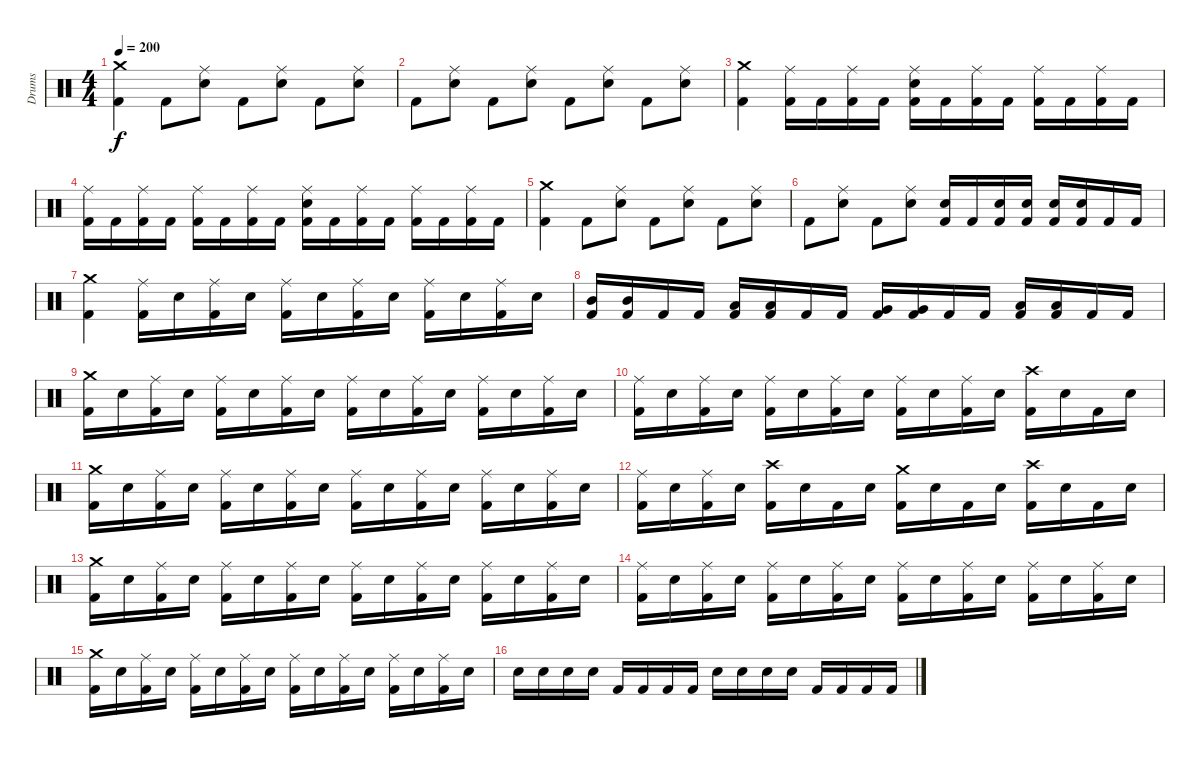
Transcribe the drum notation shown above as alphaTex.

\track ("Drums" "Drums") {instrument percussion}
\staff {score}
\articulation defaults
\ts (4 4)
\tempo 200
\clef neutral
\ks c
("Crash medium (hit)" "Kick (hit) 2").4{dy f} "Kick (hit) 2".8 ("Ride (middle)" "Electric Snare (hit)").8 "Kick (hit) 2".8 ("Ride (middle)" "Electric Snare (hit)").8 "Kick (hit) 2".8 ("Ride (middle)" "Electric Snare (hit)").8 |
"Kick (hit) 2".8 ("Ride (middle)" "Electric Snare (hit)").8 "Kick (hit) 2".8 ("Ride (middle)" "Electric Snare (hit)").8 "Kick (hit) 2".8 ("Ride (middle)" "Electric Snare (hit)").8 "Kick (hit) 2".8 ("Ride (middle)" "Electric Snare (hit)").8 |
("Crash medium (hit)" "Kick (hit) 2").4 ("Ride (middle)" "Kick (hit) 2").16 "Kick (hit) 2".16 ("Ride (middle)" "Kick (hit) 2").16 "Kick (hit) 2".16 ("Ride (middle)" "Electric Snare (hit)" "Kick (hit) 2").16 "Kick (hit) 2".16 ("Ride (middle)" "Kick (hit) 2").16 "Kick (hit) 2".16 ("Ride (middle)" "Kick (hit) 2").16 "Kick (hit) 2".16 ("Ride (middle)" "Kick (hit) 2").16 "Kick (hit) 2".16 |
("Ride (middle)" "Kick (hit) 2").16 "Kick (hit) 2".16 ("Ride (middle)" "Kick (hit) 2").16 "Kick (hit) 2".16 ("Ride (middle)" "Kick (hit) 2").16 "Kick (hit) 2".16 ("Ride (middle)" "Kick (hit) 2").16 "Kick (hit) 2".16 ("Ride (middle)" "Electric Snare (hit)" "Kick (hit) 2").16 "Kick (hit) 2".16 ("Ride (middle)" "Kick (hit) 2").16 "Kick (hit) 2".16 ("Ride (middle)" "Kick (hit) 2").16 "Kick (hit) 2".16 ("Ride (middle)" "Kick (hit) 2").16 "Kick (hit) 2".16 |
("Crash medium (hit)" "Kick (hit) 2").4 "Kick (hit) 2".8 ("Ride (middle)" "Electric Snare (hit)").8 "Kick (hit) 2".8 ("Ride (middle)" "Electric Snare (hit)").8 "Kick (hit) 2".8 ("Ride (middle)" "Electric Snare (hit)").8 |
"Kick (hit) 2".8 ("Ride (middle)" "Electric Snare (hit)").8 "Kick (hit) 2".8 ("Ride (middle)" "Electric Snare (hit)").8 ("Electric Snare (hit)" "Kick (hit) 2").16 "Kick (hit) 2".16 ("Electric Snare (hit)" "Kick (hit) 2").16 ("Electric Snare (hit)" "Kick (hit) 2").16 ("Electric Snare (hit)" "Kick (hit) 2").16 ("Electric Snare (hit)" "Kick (hit) 2").16 "Kick (hit) 2".16 "Kick (hit) 2".16 |
("Crash medium (hit)" "Kick (hit) 2").4 ("Ride (middle)" "Kick (hit) 2").16 "Electric Snare (hit)".16 ("Ride (middle)" "Kick (hit) 2").16 "Electric Snare (hit)".16 ("Ride (middle)" "Kick (hit) 2").16 "Electric Snare (hit)".16 ("Ride (middle)" "Kick (hit) 2").16 "Electric Snare (hit)".16 ("Ride (middle)" "Kick (hit) 2").16 "Electric Snare (hit)".16 ("Ride (middle)" "Kick (hit) 2").16 "Electric Snare (hit)".16 |
("Mid Tom (hit)" "Kick (hit) 2").16 ("Mid Tom (hit)" "Kick (hit) 2").16 "Kick (hit) 2".16 "Kick (hit) 2".16 ("Low Tom (hit)" "Kick (hit) 2").16 ("Low Tom (hit)" "Kick (hit) 2").16 "Kick (hit) 2".16 "Kick (hit) 2".16 ("Very Low Tom (hit)" "Kick (hit) 2").16 ("Very Low Tom (hit)" "Kick (hit) 2").16 "Kick (hit) 2".16 "Kick (hit) 2".16 ("Low Floor Tom (hit)" "Kick (hit) 2").16 ("Low Floor Tom (hit)" "Kick (hit) 2").16 "Kick (hit) 2".16 "Kick (hit) 2".16 |
\section ("" "")
("Crash medium (hit)" "Kick (hit) 2").16 "Electric Snare (hit)".16 ("Ride (middle)" "Kick (hit) 2").16 "Electric Snare (hit)".16 ("Ride (middle)" "Kick (hit) 2").16 "Electric Snare (hit)".16 ("Ride (middle)" "Kick (hit) 2").16 "Electric Snare (hit)".16 ("Ride (middle)" "Kick (hit) 2").16 "Electric Snare (hit)".16 ("Ride (middle)" "Kick (hit) 2").16 "Electric Snare (hit)".16 ("Ride (middle)" "Kick (hit) 2").16 "Electric Snare (hit)".16 ("Ride (middle)" "Kick (hit) 2").16 "Electric Snare (hit)".16 |
("Ride (middle)" "Kick (hit) 2").16 "Electric Snare (hit)".16 ("Ride (middle)" "Kick (hit) 2").16 "Electric Snare (hit)".16 ("Ride (middle)" "Kick (hit) 2").16 "Electric Snare (hit)".16 ("Ride (middle)" "Kick (hit) 2").16 "Electric Snare (hit)".16 ("Ride (middle)" "Kick (hit) 2").16 "Electric Snare (hit)".16 ("Ride (middle)" "Kick (hit) 2").16 "Electric Snare (hit)".16 ("Crash high (hit)" "Kick (hit) 2").16 "Electric Snare (hit)".16 "Kick (hit) 2".16 "Electric Snare (hit)".16 |
("Crash medium (hit)" "Kick (hit) 2").16 "Electric Snare (hit)".16 ("Ride (middle)" "Kick (hit) 2").16 "Electric Snare (hit)".16 ("Ride (middle)" "Kick (hit) 2").16 "Electric Snare (hit)".16 ("Ride (middle)" "Kick (hit) 2").16 "Electric Snare (hit)".16 ("Ride (middle)" "Kick (hit) 2").16 "Electric Snare (hit)".16 ("Ride (middle)" "Kick (hit) 2").16 "Electric Snare (hit)".16 ("Ride (middle)" "Kick (hit) 2").16 "Electric Snare (hit)".16 ("Ride (middle)" "Kick (hit) 2").16 "Electric Snare (hit)".16 |
("Ride (middle)" "Kick (hit) 2").16 "Electric Snare (hit)".16 ("Ride (middle)" "Kick (hit) 2").16 "Electric Snare (hit)".16 ("Crash high (hit)" "Kick (hit) 2").16 "Electric Snare (hit)".16 "Kick (hit) 2".16 "Electric Snare (hit)".16 ("Crash medium (hit)" "Kick (hit) 2").16 "Electric Snare (hit)".16 "Kick (hit) 2".16 "Electric Snare (hit)".16 ("Crash high (hit)" "Kick (hit) 2").16 "Electric Snare (hit)".16 "Kick (hit) 2".16 "Electric Snare (hit)".16 |
("Crash medium (hit)" "Kick (hit) 2").16 "Electric Snare (hit)".16 ("Ride (middle)" "Kick (hit) 2").16 "Electric Snare (hit)".16 ("Ride (middle)" "Kick (hit) 2").16 "Electric Snare (hit)".16 ("Ride (middle)" "Kick (hit) 2").16 "Electric Snare (hit)".16 ("Ride (middle)" "Kick (hit) 2").16 "Electric Snare (hit)".16 ("Ride (middle)" "Kick (hit) 2").16 "Electric Snare (hit)".16 ("Ride (middle)" "Kick (hit) 2").16 "Electric Snare (hit)".16 ("Ride (middle)" "Kick (hit) 2").16 "Electric Snare (hit)".16 |
("Ride (middle)" "Kick (hit) 2").16 "Electric Snare (hit)".16 ("Ride (middle)" "Kick (hit) 2").16 "Electric Snare (hit)".16 ("Ride (middle)" "Kick (hit) 2").16 "Electric Snare (hit)".16 ("Ride (middle)" "Kick (hit) 2").16 "Electric Snare (hit)".16 ("Ride (middle)" "Kick (hit) 2").16 "Electric Snare (hit)".16 ("Ride (middle)" "Kick (hit) 2").16 "Electric Snare (hit)".16 ("Ride (middle)" "Kick (hit) 2").16 "Electric Snare (hit)".16 ("Ride (middle)" "Kick (hit) 2").16 "Electric Snare (hit)".16 |
("Crash medium (hit)" "Kick (hit) 2").16 "Electric Snare (hit)".16 ("Ride (middle)" "Kick (hit) 2").16 "Electric Snare (hit)".16 ("Ride (middle)" "Kick (hit) 2").16 "Electric Snare (hit)".16 ("Ride (middle)" "Kick (hit) 2").16 "Electric Snare (hit)".16 ("Ride (middle)" "Kick (hit) 2").16 "Electric Snare (hit)".16 ("Ride (middle)" "Kick (hit) 2").16 "Electric Snare (hit)".16 ("Ride (middle)" "Kick (hit) 2").16 "Electric Snare (hit)".16 ("Ride (middle)" "Kick (hit) 2").16 "Electric Snare (hit)".16 |
"Electric Snare (hit)".16 "Electric Snare (hit)".16 "Electric Snare (hit)".16 "Electric Snare (hit)".16 "Kick (hit) 2".16 "Kick (hit) 2".16 "Kick (hit) 2".16 "Kick (hit) 2".16 "Electric Snare (hit)".16 "Electric Snare (hit)".16 "Electric Snare (hit)".16 "Electric Snare (hit)".16 "Kick (hit) 2".16 "Kick (hit) 2".16 "Kick (hit) 2".16 "Kick (hit) 2".16
